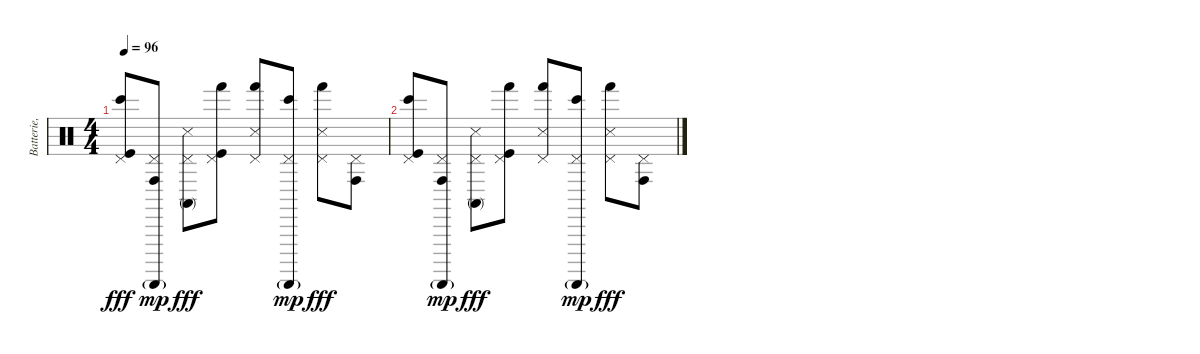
\track ("Batterie, percu." "Batterie, ") {instrument percussion}
\staff {score}
\articulation defaults
\ts (4 4)
\tempo 96
\clef neutral
\ks c
("Pedal Hi-Hat (hit)" "Bongo High (hit)" "Kick (hit)").8{dy fff} ("Pedal Hi-Hat (hit)" "Conga high (hit)" "Guiro (scrap-return)"{g}).8{dy mp} ("Pedal Hi-Hat (hit)" "Conga high (mute)" "Snare (side stick) 3").8{dy fff} ("Pedal Hi-Hat (hit)" "Hand (hit)" "Kick (hit)").8 ("Pedal Hi-Hat (hit)" "Hand (hit)" "Snare (side stick) 3").8 ("Pedal Hi-Hat (hit)" "Bongo High (hit)" "Guiro (scrap-return)"{g}).8{dy mp} ("Pedal Hi-Hat (hit)" "Hand (hit)" "Snare (side stick) 3").8{dy fff} ("Pedal Hi-Hat (hit)" "Conga high (hit)").8 |
("Pedal Hi-Hat (hit)" "Bongo High (hit)" "Kick (hit)").8 ("Pedal Hi-Hat (hit)" "Conga high (hit)" "Guiro (scrap-return)"{g}).8{dy mp} ("Pedal Hi-Hat (hit)" "Conga high (mute)" "Snare (side stick) 3").8{dy fff} ("Pedal Hi-Hat (hit)" "Hand (hit)" "Kick (hit)").8 ("Pedal Hi-Hat (hit)" "Hand (hit)" "Snare (side stick) 3").8 ("Pedal Hi-Hat (hit)" "Bongo High (hit)" "Guiro (scrap-return)"{g}).8{dy mp} ("Pedal Hi-Hat (hit)" "Hand (hit)" "Snare (side stick) 3").8{dy fff} ("Pedal Hi-Hat (hit)" "Conga high (hit)").8
